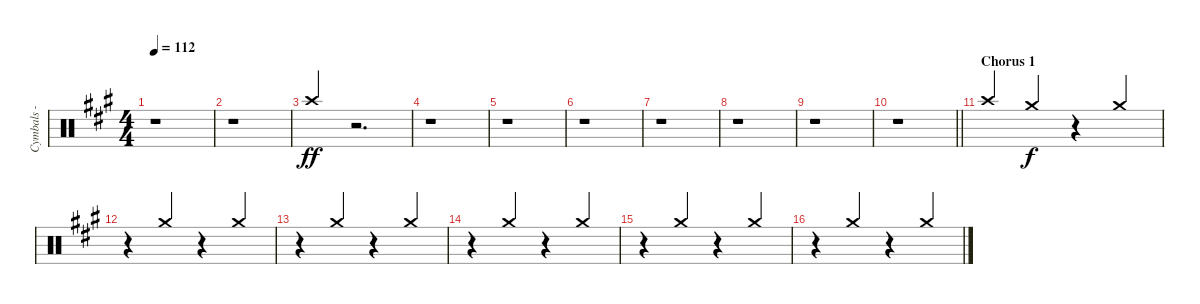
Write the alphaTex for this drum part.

\track ("Cymbals - crash" "Cymbals - ") {instrument percussion}
\staff {score}
\articulation defaults
\ts (4 4)
\tempo 112
\clef neutral
\ks f#minor
r.1{dy ff} |
r.1 |
"Crash high (hit)".4{beam Up} r.2{d} |
r.1 |
r.1 |
r.1 |
r.1 |
r.1 |
r.1 |
\barLineRight lightlight
r.1 |
\section ("" "Chorus 1")
"Crash high (hit)".4{beam Up} "Crash medium (hit)".4{dy f volume 3 balance 4 beam Up} r.4 "Crash medium (hit)".4{beam Up} |
r.4{beam Up} "Crash medium (hit)".4{beam Up} r.4 "Crash medium (hit)".4{beam Up} |
r.4{beam Up} "Crash medium (hit)".4{beam Up} r.4 "Crash medium (hit)".4{beam Up} |
r.4{beam Up} "Crash medium (hit)".4{beam Up} r.4 "Crash medium (hit)".4{beam Up} |
r.4{beam Up} "Crash medium (hit)".4{beam Up} r.4 "Crash medium (hit)".4{beam Up} |
r.4{beam Up} "Crash medium (hit)".4{beam Up} r.4 "Crash medium (hit)".4{beam Up}
